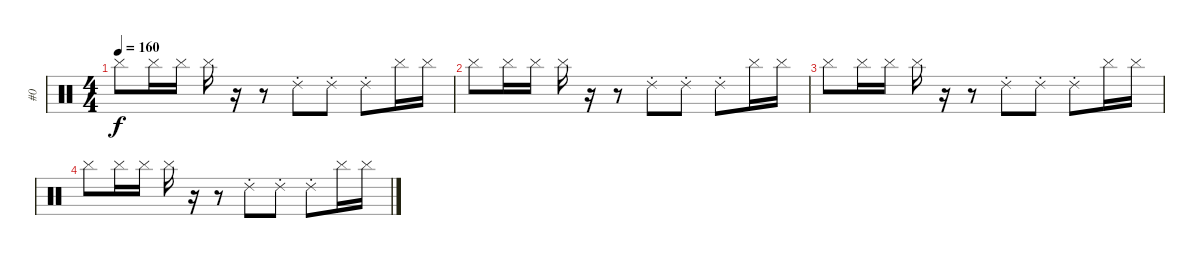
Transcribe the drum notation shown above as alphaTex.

\track ("#0" "#0") {instrument percussion}
\staff {score}
\articulation defaults
\ts (4 4)
\tempo 160
\clef neutral
\ks c "Cymbal (hit)".8{dy f} "Cymbal (hit)".16 "Cymbal (hit)".16 "Cymbal (hit)".16
r.16 r.8 "Ride (choke) 2".8 "Ride (choke) 2".8 "Ride (choke) 2".8 "Cymbal (hit)".16 "Cymbal (hit)".16 |
"Cymbal (hit)".8 "Cymbal (hit)".16 "Cymbal (hit)".16 "Cymbal (hit)".16 r.16 r.8 "Ride (choke) 2".8 "Ride (choke) 2".8 "Ride (choke) 2".8 "Cymbal (hit)".16 "Cymbal (hit)".16 |
"Cymbal (hit)".8 "Cymbal (hit)".16 "Cymbal (hit)".16 "Cymbal (hit)".16 r.16 r.8 "Ride (choke) 2".8 "Ride (choke) 2".8 "Ride (choke) 2".8 "Cymbal (hit)".16 "Cymbal (hit)".16 |
"Cymbal (hit)".8 "Cymbal (hit)".16 "Cymbal (hit)".16 "Cymbal (hit)".16 r.16 r.8 "Ride (choke) 2".8 "Ride (choke) 2".8 "Ride (choke) 2".8 "Cymbal (hit)".16 "Cymbal (hit)".16
